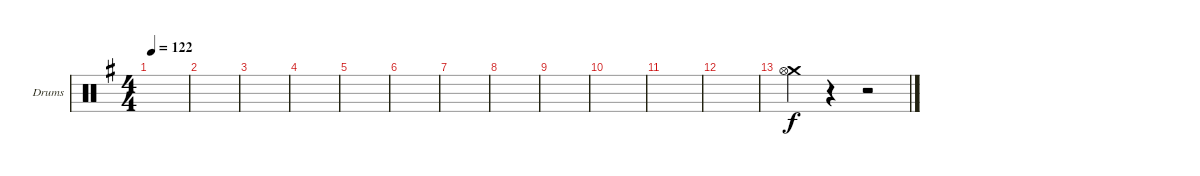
\defaultSystemsLayout 4
\bracketExtendMode groupsimilarinstruments
\firstSystemTrackNameOrientation horizontal
\otherSystemsTrackNameOrientation horizontal
\track ("Drumkit" "Drums") {instrument percussion}
\staff {score}
\articulation defaults
\ts (4 4)
\tempo 122
\clef neutral
\ks g
|
|
|
|
|
|
|
|
|
|
|
|
("Crash medium (hit)" "Hi-Hat (open)").4 r.4 r.2
